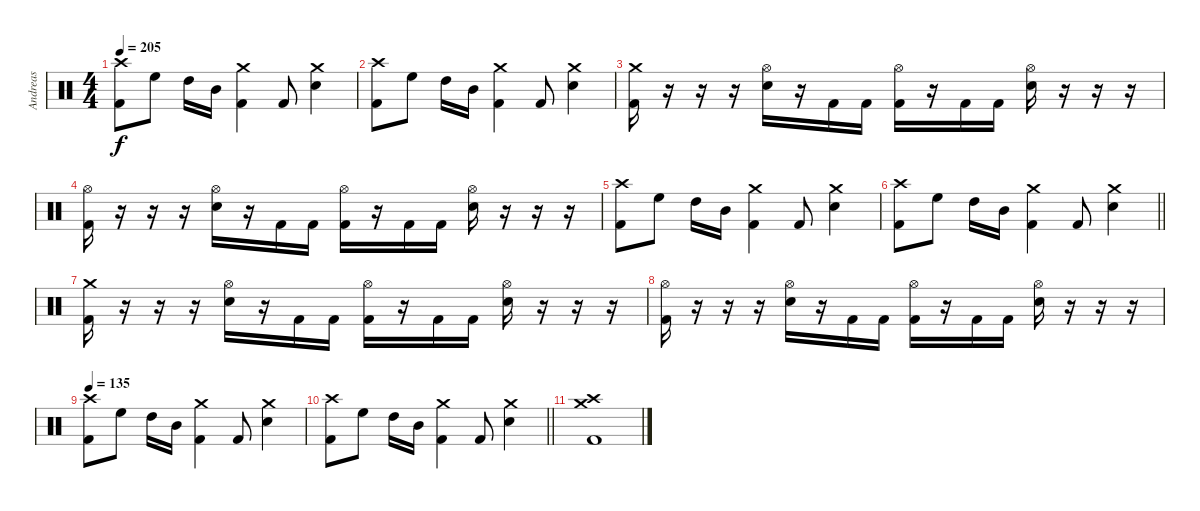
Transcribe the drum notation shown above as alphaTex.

\track ("Andreas" "Andreas") {instrument percussion}
\staff {score}
\articulation defaults
\ts (4 4)
\tempo 205
\clef neutral
\ks c
("Crash high (hit)" "Kick (hit) 2").8{dy f} "High Floor Tom (hit)".8 "High Tom (hit)".16 "Mid Tom (hit)".16 ("Crash medium (hit)" "Kick (hit) 2").4 "Kick (hit) 2".8 ("Crash medium (hit)" "Electric Snare (hit)").4 |
("Crash high (hit)" "Kick (hit) 2").8 "High Floor Tom (hit)".8 "High Tom (hit)".16 "Mid Tom (hit)".16 ("Crash medium (hit)" "Kick (hit) 2").4 "Kick (hit) 2".8 ("Crash medium (hit)" "Electric Snare (hit)").4 |
("Crash medium (hit)" "Kick (hit) 2").16 r.16 r.16 r.16 ("Hi-Hat (open)" "Electric Snare (hit)").16 r.16 "Kick (hit) 2".16 "Kick (hit) 2".16 ("Hi-Hat (open)" "Kick (hit) 2").16 r.16 "Kick (hit) 2".16 "Kick (hit) 2".16 ("Hi-Hat (open)" "Electric Snare (hit)").16 r.16 r.16 r.16 |
("Hi-Hat (open)" "Kick (hit) 2").16 r.16 r.16 r.16 ("Hi-Hat (open)" "Electric Snare (hit)").16 r.16 "Kick (hit) 2".16 "Kick (hit) 2".16 ("Hi-Hat (open)" "Kick (hit) 2").16 r.16 "Kick (hit) 2".16 "Kick (hit) 2".16 ("Hi-Hat (open)" "Electric Snare (hit)").16 r.16 r.16 r.16 |
("Crash high (hit)" "Kick (hit) 2").8 "High Floor Tom (hit)".8 "High Tom (hit)".16 "Mid Tom (hit)".16 ("Crash medium (hit)" "Kick (hit) 2").4 "Kick (hit) 2".8 ("Crash medium (hit)" "Electric Snare (hit)").4 |
\barLineRight lightlight
("Crash high (hit)" "Kick (hit) 2").8 "High Floor Tom (hit)".8 "High Tom (hit)".16 "Mid Tom (hit)".16 ("Crash medium (hit)" "Kick (hit) 2").4 "Kick (hit) 2".8 ("Crash medium (hit)" "Electric Snare (hit)").4 |
("Crash medium (hit)" "Kick (hit) 2").16 r.16 r.16 r.16 ("Hi-Hat (open)" "Electric Snare (hit)").16 r.16 "Kick (hit) 2".16 "Kick (hit) 2".16 ("Hi-Hat (open)" "Kick (hit) 2").16 r.16 "Kick (hit) 2".16 "Kick (hit) 2".16 ("Hi-Hat (open)" "Electric Snare (hit)").16 r.16 r.16 r.16 |
("Hi-Hat (open)" "Kick (hit) 2").16 r.16 r.16 r.16 ("Hi-Hat (open)" "Electric Snare (hit)").16 r.16 "Kick (hit) 2".16 "Kick (hit) 2".16 ("Hi-Hat (open)" "Kick (hit) 2").16 r.16 "Kick (hit) 2".16 "Kick (hit) 2".16 ("Hi-Hat (open)" "Electric Snare (hit)").16 r.16 r.16 r.16 |
\tempo 135
("Crash high (hit)" "Kick (hit) 2").8 "High Floor Tom (hit)".8 "High Tom (hit)".16 "Mid Tom (hit)".16 ("Crash medium (hit)" "Kick (hit) 2").4 "Kick (hit) 2".8 ("Crash medium (hit)" "Electric Snare (hit)").4 |
\barLineRight lightlight
("Crash high (hit)" "Kick (hit) 2").8 "High Floor Tom (hit)".8 "High Tom (hit)".16 "Mid Tom (hit)".16 ("Crash medium (hit)" "Kick (hit) 2").4 "Kick (hit) 2".8 ("Crash medium (hit)" "Electric Snare (hit)").4 |
("Crash medium (hit)" "Crash high (hit)" "Kick (hit) 2").1
